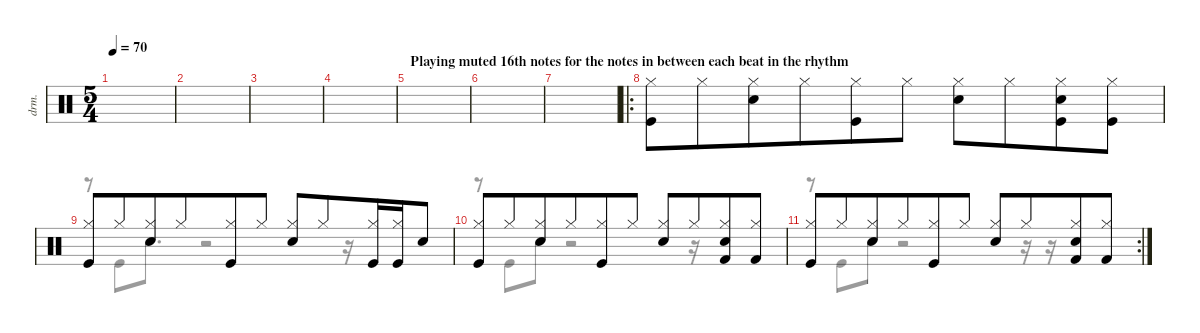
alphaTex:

\defaultSystemsLayout 4
\hideDynamics
\bracketExtendMode nobrackets
\track ("Drumkit" "drm.") {instrument percussion}
\staff {score}
\articulation defaults
\voice
\ts (5 4)
\beaming (8 6 4)
\tempo 70
\clef neutral
\ks aminor
|
|
|
|
\section ("" "Playing muted 16th notes for the notes in between each beat in the rhythm")
|
|
|
\ro
\section ("" "")
("Kick (hit)" "Hi-Hat (closed)").8 "Hi-Hat (closed)".8 ("Hi-Hat (closed)" "Snare (hit) 2").8 "Hi-Hat (closed)".8 ("Kick (hit)" "Hi-Hat (closed)").8 "Hi-Hat (closed)".8 ("Hi-Hat (closed)" "Snare (hit) 2").8 "Hi-Hat (closed)".8 ("Hi-Hat (closed)" "Kick (hit)" "Snare (hit) 2").8 ("Hi-Hat (closed)" "Kick (hit)").8 |
("Kick (hit)" "Hi-Hat (closed)").8 "Hi-Hat (closed)".8 ("Hi-Hat (closed)" "Snare (hit) 2").8 "Hi-Hat (closed)".8 ("Kick (hit)" "Hi-Hat (closed)").8 "Hi-Hat (closed)".8 ("Hi-Hat (closed)" "Snare (hit) 2").8 "Hi-Hat (closed)".8 ("Hi-Hat (closed)" "Kick (hit)").16 ("Hi-Hat (closed)" "Kick (hit)").16 "Snare (hit) 2".8 |
("Kick (hit)" "Hi-Hat (closed)").8{beam Up} "Hi-Hat (closed)".8{beam Up} ("Hi-Hat (closed)" "Snare (hit) 2").8{beam Up} "Hi-Hat (closed)".8{beam Up} ("Kick (hit)" "Hi-Hat (closed)").8{beam Up} "Hi-Hat (closed)".8{beam Up} ("Hi-Hat (closed)" "Snare (hit) 2").8{beam Up} "Hi-Hat (closed)".8{beam Up} ("Hi-Hat (closed)" "Kick (hit) 2" "Snare (hit) 2").8{beam Up} ("Hi-Hat (closed)" "Kick (hit) 2").8{beam Up} |
\rc 2
("Kick (hit)" "Hi-Hat (closed)").8{beam Up} "Hi-Hat (closed)".8{beam Up} ("Hi-Hat (closed)" "Snare (hit) 2").8{beam Up} "Hi-Hat (closed)".8{beam Up} ("Kick (hit)" "Hi-Hat (closed)").8{beam Up} "Hi-Hat (closed)".8{beam Up} ("Hi-Hat (closed)" "Snare (hit) 2").8{beam Up} "Hi-Hat (closed)".8{beam Up} ("Hi-Hat (closed)" "Kick (hit) 2" "Snare (hit) 2").8{beam Up} ("Hi-Hat (closed)" "Kick (hit) 2").8{beam Up}
\voice
\clef neutral
\ottava regular
\simile none
\ks aminor
|
|
|
|
|
|
|
|
r.8 "Kick (hit)".8 "Snare (hit) 2".8{d} r.2 r.16 |
r.8{beam Down} "Kick (hit)".8{beam Down} "Snare (hit) 2".8{beam Down} r.2{beam Down} r.16{beam Down} |
r.8{beam Down} "Kick (hit)".8{beam Down} "Snare (hit) 2".8{beam Down} r.2{beam Down} r.16{beam Down} r.16{beam Down}
